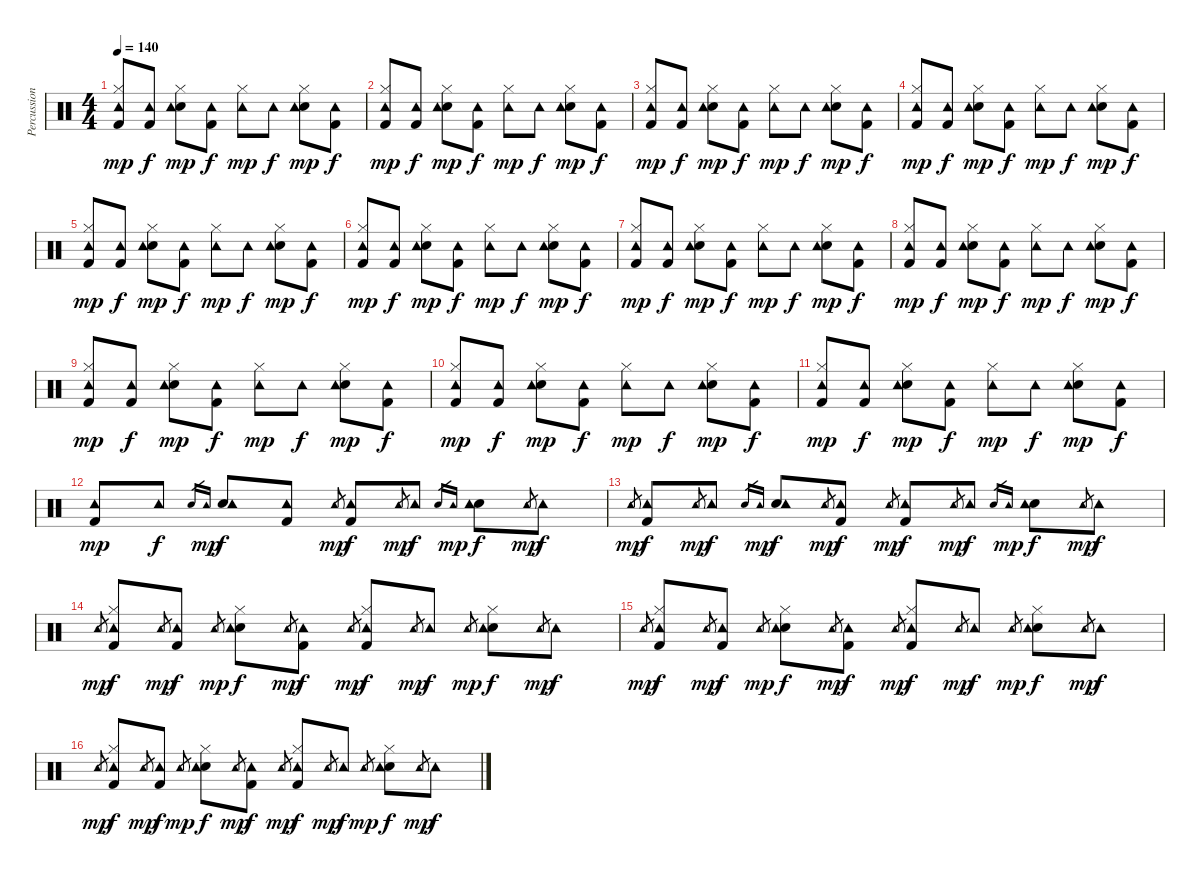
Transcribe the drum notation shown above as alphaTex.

\track ("Percussion" "Percussion") {instrument percussion}
\staff {score}
\articulation defaults
\ts (4 4)
\tempo 140
\clef neutral
\ks c
("Kick (hit) 2" "Hi-Hat (closed)" "Tambourine (hit)").8{dy mp} ("Kick (hit) 2" "Tambourine (hit)").8{dy f} ("Snare (hit) 2" "Hi-Hat (closed)" "Tambourine (hit)").8{dy mp} ("Kick (hit) 2" "Tambourine (hit)").8{dy f} ("Hi-Hat (closed)" "Tambourine (hit)").8{dy mp} "Tambourine (hit)".8{dy f} ("Snare (hit) 2" "Hi-Hat (closed)" "Tambourine (hit)").8{dy mp} ("Kick (hit) 2" "Tambourine (hit)").8{dy f} |
("Kick (hit) 2" "Hi-Hat (closed)" "Tambourine (hit)").8{dy mp} ("Kick (hit) 2" "Tambourine (hit)").8{dy f} ("Snare (hit) 2" "Hi-Hat (closed)" "Tambourine (hit)").8{dy mp} ("Kick (hit) 2" "Tambourine (hit)").8{dy f} ("Hi-Hat (closed)" "Tambourine (hit)").8{dy mp} "Tambourine (hit)".8{dy f} ("Snare (hit) 2" "Hi-Hat (closed)" "Tambourine (hit)").8{dy mp} ("Kick (hit) 2" "Tambourine (hit)").8{dy f} |
("Kick (hit) 2" "Hi-Hat (closed)" "Tambourine (hit)").8{dy mp} ("Kick (hit) 2" "Tambourine (hit)").8{dy f} ("Snare (hit) 2" "Hi-Hat (closed)" "Tambourine (hit)").8{dy mp} ("Kick (hit) 2" "Tambourine (hit)").8{dy f} ("Hi-Hat (closed)" "Tambourine (hit)").8{dy mp} "Tambourine (hit)".8{dy f} ("Snare (hit) 2" "Hi-Hat (closed)" "Tambourine (hit)").8{dy mp} ("Kick (hit) 2" "Tambourine (hit)").8{dy f} |
("Kick (hit) 2" "Hi-Hat (closed)" "Tambourine (hit)").8{dy mp} ("Kick (hit) 2" "Tambourine (hit)").8{dy f} ("Snare (hit) 2" "Hi-Hat (closed)" "Tambourine (hit)").8{dy mp} ("Kick (hit) 2" "Tambourine (hit)").8{dy f} ("Hi-Hat (closed)" "Tambourine (hit)").8{dy mp} "Tambourine (hit)".8{dy f} ("Snare (hit) 2" "Hi-Hat (closed)" "Tambourine (hit)").8{dy mp} ("Kick (hit) 2" "Tambourine (hit)").8{dy f} |
("Kick (hit) 2" "Hi-Hat (closed)" "Tambourine (hit)").8{dy mp} ("Kick (hit) 2" "Tambourine (hit)").8{dy f} ("Snare (hit) 2" "Hi-Hat (closed)" "Tambourine (hit)").8{dy mp} ("Kick (hit) 2" "Tambourine (hit)").8{dy f} ("Hi-Hat (closed)" "Tambourine (hit)").8{dy mp} "Tambourine (hit)".8{dy f} ("Snare (hit) 2" "Hi-Hat (closed)" "Tambourine (hit)").8{dy mp} ("Kick (hit) 2" "Tambourine (hit)").8{dy f} |
("Kick (hit) 2" "Hi-Hat (closed)" "Tambourine (hit)").8{dy mp} ("Kick (hit) 2" "Tambourine (hit)").8{dy f} ("Snare (hit) 2" "Hi-Hat (closed)" "Tambourine (hit)").8{dy mp} ("Kick (hit) 2" "Tambourine (hit)").8{dy f} ("Hi-Hat (closed)" "Tambourine (hit)").8{dy mp} "Tambourine (hit)".8{dy f} ("Snare (hit) 2" "Hi-Hat (closed)" "Tambourine (hit)").8{dy mp} ("Kick (hit) 2" "Tambourine (hit)").8{dy f} |
("Kick (hit) 2" "Hi-Hat (closed)" "Tambourine (hit)").8{dy mp} ("Kick (hit) 2" "Tambourine (hit)").8{dy f} ("Snare (hit) 2" "Hi-Hat (closed)" "Tambourine (hit)").8{dy mp} ("Kick (hit) 2" "Tambourine (hit)").8{dy f} ("Hi-Hat (closed)" "Tambourine (hit)").8{dy mp} "Tambourine (hit)".8{dy f} ("Snare (hit) 2" "Hi-Hat (closed)" "Tambourine (hit)").8{dy mp} ("Kick (hit) 2" "Tambourine (hit)").8{dy f} |
("Kick (hit) 2" "Hi-Hat (closed)" "Tambourine (hit)").8{dy mp} ("Kick (hit) 2" "Tambourine (hit)").8{dy f} ("Snare (hit) 2" "Hi-Hat (closed)" "Tambourine (hit)").8{dy mp} ("Kick (hit) 2" "Tambourine (hit)").8{dy f} ("Hi-Hat (closed)" "Tambourine (hit)").8{dy mp} "Tambourine (hit)".8{dy f} ("Snare (hit) 2" "Hi-Hat (closed)" "Tambourine (hit)").8{dy mp} ("Kick (hit) 2" "Tambourine (hit)").8{dy f} |
("Kick (hit) 2" "Hi-Hat (closed)" "Tambourine (hit)").8{dy mp} ("Kick (hit) 2" "Tambourine (hit)").8{dy f} ("Snare (hit) 2" "Hi-Hat (closed)" "Tambourine (hit)").8{dy mp} ("Kick (hit) 2" "Tambourine (hit)").8{dy f} ("Hi-Hat (closed)" "Tambourine (hit)").8{dy mp} "Tambourine (hit)".8{dy f} ("Snare (hit) 2" "Hi-Hat (closed)" "Tambourine (hit)").8{dy mp} ("Kick (hit) 2" "Tambourine (hit)").8{dy f} |
("Kick (hit) 2" "Hi-Hat (closed)" "Tambourine (hit)").8{dy mp} ("Kick (hit) 2" "Tambourine (hit)").8{dy f} ("Snare (hit) 2" "Hi-Hat (closed)" "Tambourine (hit)").8{dy mp} ("Kick (hit) 2" "Tambourine (hit)").8{dy f} ("Hi-Hat (closed)" "Tambourine (hit)").8{dy mp} "Tambourine (hit)".8{dy f} ("Snare (hit) 2" "Hi-Hat (closed)" "Tambourine (hit)").8{dy mp} ("Kick (hit) 2" "Tambourine (hit)").8{dy f} |
("Kick (hit) 2" "Hi-Hat (closed)" "Tambourine (hit)").8{dy mp} ("Kick (hit) 2" "Tambourine (hit)").8{dy f} ("Snare (hit) 2" "Hi-Hat (closed)" "Tambourine (hit)").8{dy mp} ("Kick (hit) 2" "Tambourine (hit)").8{dy f} ("Hi-Hat (closed)" "Tambourine (hit)").8{dy mp} "Tambourine (hit)".8{dy f} ("Snare (hit) 2" "Hi-Hat (closed)" "Tambourine (hit)").8{dy mp} ("Kick (hit) 2" "Tambourine (hit)").8{dy f} |
("Kick (hit) 2" "Tambourine (hit)").8{dy mp} "Tambourine (hit)".8{dy f} "Snare (hit) 2".16{gr} "Tambourine (hit)".16{gr dy mp} ("Snare (hit) 2" "Tambourine (hit)").8{dy f} ("Kick (hit) 2" "Tambourine (hit)").8 "Tambourine (hit)".8{gr dy mp} ("Kick (hit) 2" "Tambourine (hit)").8{dy f} "Tambourine (hit)".8{gr dy mp} "Tambourine (hit)".8{dy f} "Snare (hit) 2".16{gr} "Tambourine (hit)".16{gr dy mp} ("Snare (hit) 2" "Tambourine (hit)").8{dy f} "Tambourine (hit)".8{gr dy mp} "Tambourine (hit)".8{dy f} |
"Tambourine (hit)".8{gr dy mp} ("Kick (hit) 2" "Tambourine (hit)").8{dy f} "Tambourine (hit)".8{gr dy mp} "Tambourine (hit)".8{dy f} "Snare (hit) 2".16{gr} "Tambourine (hit)".16{gr dy mp} ("Snare (hit) 2" "Tambourine (hit)").8{dy f} "Tambourine (hit)".8{gr dy mp} ("Kick (hit) 2" "Tambourine (hit)").8{dy f} "Tambourine (hit)".8{gr dy mp} ("Kick (hit) 2" "Tambourine (hit)").8{dy f} "Tambourine (hit)".8{gr dy mp} "Tambourine (hit)".8{dy f} "Snare (hit) 2".16{gr} "Tambourine (hit)".16{gr dy mp} ("Snare (hit) 2" "Tambourine (hit)").8{dy f} "Tambourine (hit)".8{gr dy mp} "Tambourine (hit)".8{dy f} |
"Tambourine (hit)".8{gr dy mp} ("Kick (hit) 2" "Hi-Hat (closed)" "Tambourine (hit)").8{dy f} "Tambourine (hit)".8{gr dy mp} ("Kick (hit) 2" "Tambourine (hit)").8{dy f} "Tambourine (hit)".8{gr dy mp} ("Snare (hit) 2" "Hi-Hat (closed)" "Tambourine (hit)").8{dy f} "Tambourine (hit)".8{gr dy mp} ("Kick (hit) 2" "Tambourine (hit)").8{dy f} "Tambourine (hit)".8{gr dy mp} ("Kick (hit) 2" "Hi-Hat (closed)" "Tambourine (hit)").8{dy f} "Tambourine (hit)".8{gr dy mp} "Tambourine (hit)".8{dy f} "Tambourine (hit)".8{gr dy mp} ("Snare (hit) 2" "Hi-Hat (closed)" "Tambourine (hit)").8{dy f} "Tambourine (hit)".8{gr dy mp} "Tambourine (hit)".8{dy f} |
"Tambourine (hit)".8{gr dy mp} ("Kick (hit) 2" "Hi-Hat (closed)" "Tambourine (hit)").8{dy f} "Tambourine (hit)".8{gr dy mp} ("Kick (hit) 2" "Tambourine (hit)").8{dy f} "Tambourine (hit)".8{gr dy mp} ("Snare (hit) 2" "Hi-Hat (closed)" "Tambourine (hit)").8{dy f} "Tambourine (hit)".8{gr dy mp} ("Kick (hit) 2" "Tambourine (hit)").8{dy f} "Tambourine (hit)".8{gr dy mp} ("Kick (hit) 2" "Hi-Hat (closed)" "Tambourine (hit)").8{dy f} "Tambourine (hit)".8{gr dy mp} "Tambourine (hit)".8{dy f} "Tambourine (hit)".8{gr dy mp} ("Snare (hit) 2" "Hi-Hat (closed)" "Tambourine (hit)").8{dy f} "Tambourine (hit)".8{gr dy mp} "Tambourine (hit)".8{dy f} |
"Tambourine (hit)".8{gr dy mp} ("Kick (hit) 2" "Hi-Hat (closed)" "Tambourine (hit)").8{dy f} "Tambourine (hit)".8{gr dy mp} ("Kick (hit) 2" "Tambourine (hit)").8{dy f} "Tambourine (hit)".8{gr dy mp} ("Snare (hit) 2" "Hi-Hat (closed)" "Tambourine (hit)").8{dy f} "Tambourine (hit)".8{gr dy mp} ("Kick (hit) 2" "Tambourine (hit)").8{dy f} "Tambourine (hit)".8{gr dy mp} ("Kick (hit) 2" "Hi-Hat (closed)" "Tambourine (hit)").8{dy f} "Tambourine (hit)".8{gr dy mp} "Tambourine (hit)".8{dy f} "Tambourine (hit)".8{gr dy mp} ("Snare (hit) 2" "Hi-Hat (closed)" "Tambourine (hit)").8{dy f} "Tambourine (hit)".8{gr dy mp} "Tambourine (hit)".8{dy f}
